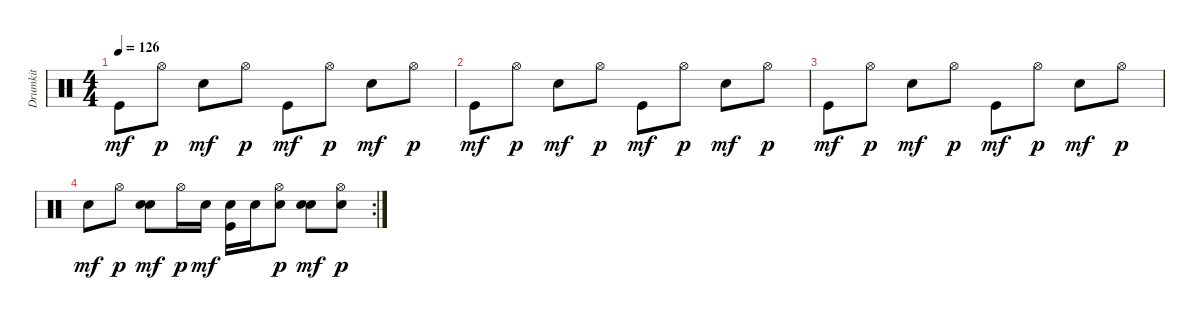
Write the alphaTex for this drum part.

\track ("Drumkit" "Drumkit") {instrument percussion}
\staff {score}
\articulation defaults
\ts (4 4)
\tempo 126
\clef neutral
\ks c "Kick (hit)".8{dy mf} "Hi-Hat (open)".8{dy p} "Snare (hit) 2".8{dy mf} "Hi-Hat (open)".8{dy p} "Kick (hit)".8{dy mf} "Hi-Hat (open)".8{dy p} "Snare (hit) 2".8{dy mf} "Hi-Hat (open)".8{dy p}
|
"Kick (hit)".8{dy mf} "Hi-Hat (open)".8{dy p} "Snare (hit) 2".8{dy mf} "Hi-Hat (open)".8{dy p} "Kick (hit)".8{dy mf} "Hi-Hat (open)".8{dy p} "Snare (hit) 2".8{dy mf} "Hi-Hat (open)".8{dy p} |
"Kick (hit)".8{dy mf} "Hi-Hat (open)".8{dy p} "Snare (hit) 2".8{dy mf} "Hi-Hat (open)".8{dy p} "Kick (hit)".8{dy mf} "Hi-Hat (open)".8{dy p} "Snare (hit) 2".8{dy mf} "Hi-Hat (open)".8{dy p} |
\rc 2 "Snare (hit) 2".8{dy mf} "Hi-Hat (open)".8{dy p}
("Snare (hit) 2" "Snare (hit) 2").8{dy mf} "Hi-Hat (open)".16{dy p} "Snare (hit) 2".16{dy mf} ("Kick (hit)" "Snare (hit) 2").16 "Snare (hit) 2".16 ("Snare (hit) 2" "Hi-Hat (open)").8{dy p} ("Snare (hit) 2" "Snare (hit) 2").8{dy mf} ("Snare (hit) 2" "Hi-Hat (open)").8{dy p}
